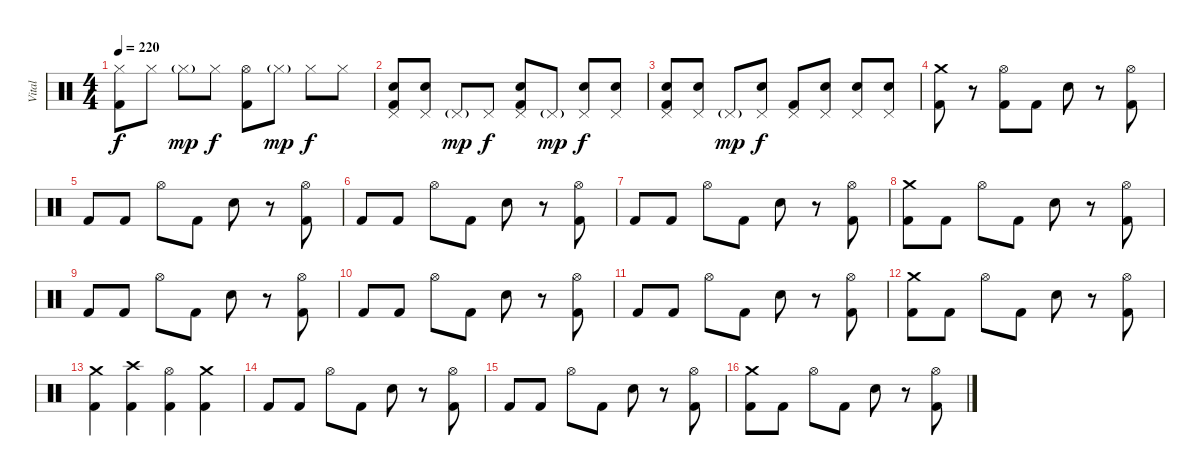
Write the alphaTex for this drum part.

\track ("Vital" "Vital") {instrument percussion}
\staff {score}
\articulation defaults
\ts (4 4)
\tempo 220
\clef neutral
\ks c
("Hi-Hat (closed)" "Kick (hit) 2").8{dy f} "Hi-Hat (closed)".8 "Hi-Hat (closed)"{g}.8{dy mp} "Hi-Hat (closed)".8{dy f} ("Hi-Hat (open)" "Kick (hit) 2").8 "Hi-Hat (closed)"{g}.8{dy mp} "Hi-Hat (closed)".8{dy f} "Hi-Hat (closed)".8 |
("Pedal Hi-Hat (hit)" "Snare (hit) 2" "Kick (hit) 2").8 ("Pedal Hi-Hat (hit)" "Snare (hit) 2").8 "Pedal Hi-Hat (hit)"{g}.8{dy mp} "Pedal Hi-Hat (hit)".8{dy f} ("Pedal Hi-Hat (hit)" "Snare (hit) 2" "Kick (hit) 2").8 "Pedal Hi-Hat (hit)"{g}.8{dy mp} ("Pedal Hi-Hat (hit)" "Snare (hit) 2").8{dy f} ("Pedal Hi-Hat (hit)" "Snare (hit) 2").8 |
("Pedal Hi-Hat (hit)" "Snare (hit) 2" "Kick (hit) 2").8 ("Pedal Hi-Hat (hit)" "Snare (hit) 2").8 "Pedal Hi-Hat (hit)"{g}.8{dy mp} ("Pedal Hi-Hat (hit)" "Snare (hit) 2").8{dy f} ("Pedal Hi-Hat (hit)" "Kick (hit) 2").8 ("Pedal Hi-Hat (hit)" "Snare (hit) 2").8 ("Pedal Hi-Hat (hit)" "Snare (hit) 2").8 ("Pedal Hi-Hat (hit)" "Snare (hit) 2").8 |
("Crash medium (hit)" "Kick (hit) 2").8 r.8 ("Hi-Hat (open)" "Kick (hit) 2").8 "Kick (hit) 2".8 "Snare (hit) 2".8 r.8 ("Hi-Hat (open)" "Kick (hit) 2").8 |
"Kick (hit) 2".8 "Kick (hit) 2".8 "Hi-Hat (open)".8 "Kick (hit) 2".8 "Snare (hit) 2".8 r.8 ("Hi-Hat (open)" "Kick (hit) 2").8 |
"Kick (hit) 2".8 "Kick (hit) 2".8 "Hi-Hat (open)".8 "Kick (hit) 2".8 "Snare (hit) 2".8 r.8 ("Hi-Hat (open)" "Kick (hit) 2").8 |
"Kick (hit) 2".8 "Kick (hit) 2".8 "Hi-Hat (open)".8 "Kick (hit) 2".8 "Snare (hit) 2".8 r.8 ("Hi-Hat (open)" "Kick (hit) 2").8 |
("Crash medium (hit)" "Kick (hit) 2").8 "Kick (hit) 2".8 "Hi-Hat (open)".8 "Kick (hit) 2".8 "Snare (hit) 2".8 r.8 ("Hi-Hat (open)" "Kick (hit) 2").8 |
"Kick (hit) 2".8 "Kick (hit) 2".8 "Hi-Hat (open)".8 "Kick (hit) 2".8 "Snare (hit) 2".8 r.8 ("Hi-Hat (open)" "Kick (hit) 2").8 |
"Kick (hit) 2".8 "Kick (hit) 2".8 "Hi-Hat (open)".8 "Kick (hit) 2".8 "Snare (hit) 2".8 r.8 ("Hi-Hat (open)" "Kick (hit) 2").8 |
"Kick (hit) 2".8 "Kick (hit) 2".8 "Hi-Hat (open)".8 "Kick (hit) 2".8 "Snare (hit) 2".8 r.8 ("Hi-Hat (open)" "Kick (hit) 2").8 |
("Crash medium (hit)" "Kick (hit) 2").8 "Kick (hit) 2".8 "Hi-Hat (open)".8 "Kick (hit) 2".8 "Snare (hit) 2".8 r.8 ("Hi-Hat (open)" "Kick (hit) 2").8 |
("Crash medium (hit)" "Kick (hit) 2").4 ("Crash high (hit)" "Kick (hit) 2").4 ("Hi-Hat (open)" "Kick (hit) 2").4 ("Crash medium (hit)" "Kick (hit) 2").4 |
"Kick (hit) 2".8 "Kick (hit) 2".8 "Hi-Hat (open)".8 "Kick (hit) 2".8 "Snare (hit) 2".8 r.8 ("Hi-Hat (open)" "Kick (hit) 2").8 |
"Kick (hit) 2".8 "Kick (hit) 2".8 "Hi-Hat (open)".8 "Kick (hit) 2".8 "Snare (hit) 2".8 r.8 ("Hi-Hat (open)" "Kick (hit) 2").8 |
("Crash medium (hit)" "Kick (hit) 2").8 "Kick (hit) 2".8 "Hi-Hat (open)".8 "Kick (hit) 2".8 "Snare (hit) 2".8 r.8 ("Hi-Hat (open)" "Kick (hit) 2").8
